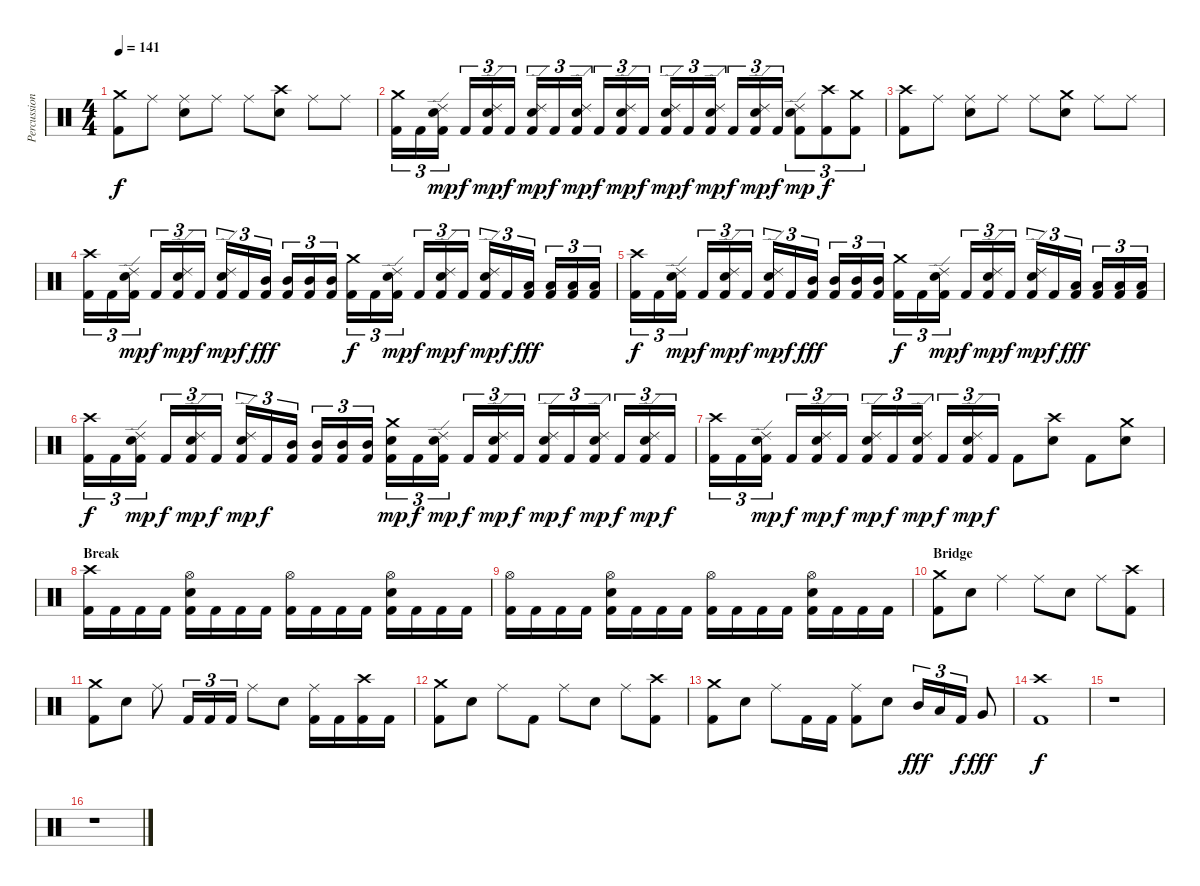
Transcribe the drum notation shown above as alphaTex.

\track ("Percussion" "Percussion") {instrument percussion}
\staff {score}
\articulation defaults
\ts (4 4)
\tempo 141
\clef neutral
\ks c
("Crash medium (hit)" "Kick (hit) 2").8{dy f} "Ride (middle)".8 ("Ride (middle)" "Snare (hit) 2").8 "Ride (middle)".8 "Ride (middle)".8 ("Crash high (hit)" "Snare (hit) 2").8 "Ride (middle)".8 "Ride (middle)".8 |
("Crash medium (hit)" "Kick (hit) 2").16{tu (3 2)} "Kick (hit) 2".16{tu (3 2)} ("Ride (edge) 2" "Snare (hit) 2" "Kick (hit) 2").16{tu (3 2) dy mp} "Kick (hit) 2".16{tu (3 2) dy f} ("Ride (edge) 2" "Snare (hit) 2" "Kick (hit) 2").16{tu (3 2) dy mp} "Kick (hit) 2".16{tu (3 2) dy f} ("Ride (edge) 2" "Snare (hit) 2" "Kick (hit) 2").16{tu (3 2) dy mp} "Kick (hit) 2".16{tu (3 2) dy f} ("Ride (edge) 2" "Snare (hit) 2" "Kick (hit) 2").16{tu (3 2) dy mp} "Kick (hit) 2".16{tu (3 2) dy f} ("Ride (edge) 2" "Snare (hit) 2" "Kick (hit) 2").16{tu (3 2) dy mp} "Kick (hit) 2".16{tu (3 2) dy f} ("Ride (edge) 2" "Snare (hit) 2" "Kick (hit) 2").16{tu (3 2) dy mp} "Kick (hit) 2".16{tu (3 2) dy f} ("Ride (edge) 2" "Snare (hit) 2" "Kick (hit) 2").16{tu (3 2) dy mp} "Kick (hit) 2".16{tu (3 2) dy f} ("Ride (edge) 2" "Snare (hit) 2" "Kick (hit) 2").16{tu (3 2) dy mp} "Kick (hit) 2".16{tu (3 2) dy f} ("Ride (edge) 2" "Snare (hit) 2" "Kick (hit) 2").8{tu (3 2) dy mp} ("Crash high (hit)" "Kick (hit) 2").8{tu (3 2) dy f} ("Crash medium (hit)" "Kick (hit) 2").8{tu (3 2)} |
("Crash high (hit)" "Kick (hit) 2").8 "Ride (middle)".8 ("Ride (middle)" "Snare (hit) 2").8 "Ride (middle)".8 "Ride (middle)".8 ("Crash medium (hit)" "Snare (hit) 2").8 "Ride (middle)".8 "Ride (middle)".8 |
("Crash high (hit)" "Kick (hit) 2").16{tu (3 2)} "Kick (hit) 2".16{tu (3 2)} ("Ride (edge) 2" "Snare (hit) 2" "Kick (hit) 2").16{tu (3 2) dy mp} "Kick (hit) 2".16{tu (3 2) dy f} ("Ride (edge) 2" "Snare (hit) 2" "Kick (hit) 2").16{tu (3 2) dy mp} "Kick (hit) 2".16{tu (3 2) dy f} ("Ride (edge) 2" "Snare (hit) 2" "Kick (hit) 2").16{tu (3 2) dy mp} "Kick (hit) 2".16{tu (3 2) dy f} ("Mid Tom (hit)" "Kick (hit) 2").16{tu (3 2) dy fff} ("Mid Tom (hit)" "Kick (hit) 2").16{tu (3 2)} ("Mid Tom (hit)" "Kick (hit) 2").16{tu (3 2)} ("Mid Tom (hit)" "Kick (hit) 2").16{tu (3 2)} ("Crash medium (hit)" "Kick (hit) 2").16{tu (3 2) dy f} "Kick (hit) 2".16{tu (3 2)} ("Ride (edge) 2" "Snare (hit) 2" "Kick (hit) 2").16{tu (3 2) dy mp} "Kick (hit) 2".16{tu (3 2) dy f} ("Ride (edge) 2" "Snare (hit) 2" "Kick (hit) 2").16{tu (3 2) dy mp} "Kick (hit) 2".16{tu (3 2) dy f} ("Ride (edge) 2" "Snare (hit) 2" "Kick (hit) 2").16{tu (3 2) dy mp} "Kick (hit) 2".16{tu (3 2) dy f} ("Low Tom (hit)" "Kick (hit) 2").16{tu (3 2) dy fff} ("Low Tom (hit)" "Kick (hit) 2").16{tu (3 2)} ("Low Tom (hit)" "Kick (hit) 2").16{tu (3 2)} ("Low Tom (hit)" "Kick (hit) 2").16{tu (3 2)} |
("Crash high (hit)" "Kick (hit) 2").16{tu (3 2) dy f} "Kick (hit) 2".16{tu (3 2)} ("Ride (edge) 2" "Snare (hit) 2" "Kick (hit) 2").16{tu (3 2) dy mp} "Kick (hit) 2".16{tu (3 2) dy f} ("Ride (edge) 2" "Snare (hit) 2" "Kick (hit) 2").16{tu (3 2) dy mp} "Kick (hit) 2".16{tu (3 2) dy f} ("Ride (edge) 2" "Snare (hit) 2" "Kick (hit) 2").16{tu (3 2) dy mp} "Kick (hit) 2".16{tu (3 2) dy f} ("Mid Tom (hit)" "Kick (hit) 2").16{tu (3 2) dy fff} ("Mid Tom (hit)" "Kick (hit) 2").16{tu (3 2)} ("Mid Tom (hit)" "Kick (hit) 2").16{tu (3 2)} ("Mid Tom (hit)" "Kick (hit) 2").16{tu (3 2)} ("Crash medium (hit)" "Kick (hit) 2").16{tu (3 2) dy f} "Kick (hit) 2".16{tu (3 2)} ("Ride (edge) 2" "Snare (hit) 2" "Kick (hit) 2").16{tu (3 2) dy mp} "Kick (hit) 2".16{tu (3 2) dy f} ("Ride (edge) 2" "Snare (hit) 2" "Kick (hit) 2").16{tu (3 2) dy mp} "Kick (hit) 2".16{tu (3 2) dy f} ("Ride (edge) 2" "Snare (hit) 2" "Kick (hit) 2").16{tu (3 2) dy mp} "Kick (hit) 2".16{tu (3 2) dy f} ("Low Tom (hit)" "Kick (hit) 2").16{tu (3 2) dy fff} ("Low Tom (hit)" "Kick (hit) 2").16{tu (3 2)} ("Low Tom (hit)" "Kick (hit) 2").16{tu (3 2)} ("Low Tom (hit)" "Kick (hit) 2").16{tu (3 2)} |
("Crash high (hit)" "Kick (hit) 2").16{tu (3 2) dy f} "Kick (hit) 2".16{tu (3 2)} ("Ride (edge) 2" "Snare (hit) 2" "Kick (hit) 2").16{tu (3 2) dy mp} "Kick (hit) 2".16{tu (3 2) dy f} ("Ride (edge) 2" "Snare (hit) 2" "Kick (hit) 2").16{tu (3 2) dy mp} "Kick (hit) 2".16{tu (3 2) dy f} ("Ride (edge) 2" "Snare (hit) 2" "Kick (hit) 2").16{tu (3 2) dy mp} "Kick (hit) 2".16{tu (3 2) dy f} ("Mid Tom (hit)" "Kick (hit) 2").16{tu (3 2)} ("Mid Tom (hit)" "Kick (hit) 2").16{tu (3 2)} ("Mid Tom (hit)" "Kick (hit) 2").16{tu (3 2)} ("Mid Tom (hit)" "Kick (hit) 2").16{tu (3 2)} ("Crash medium (hit)" "Snare (hit) 2" "Kick (hit) 2").16{tu (3 2) dy mp} "Kick (hit) 2".16{tu (3 2) dy f} ("Ride (edge) 2" "Snare (hit) 2" "Kick (hit) 2").16{tu (3 2) dy mp} "Kick (hit) 2".16{tu (3 2) dy f} ("Ride (edge) 2" "Snare (hit) 2" "Kick (hit) 2").16{tu (3 2) dy mp} "Kick (hit) 2".16{tu (3 2) dy f} ("Ride (edge) 2" "Snare (hit) 2" "Kick (hit) 2").16{tu (3 2) dy mp} "Kick (hit) 2".16{tu (3 2) dy f} ("Ride (edge) 2" "Snare (hit) 2" "Kick (hit) 2").16{tu (3 2) dy mp} "Kick (hit) 2".16{tu (3 2) dy f} ("Ride (edge) 2" "Snare (hit) 2" "Kick (hit) 2").16{tu (3 2) dy mp} "Kick (hit) 2".16{tu (3 2) dy f} |
("Crash high (hit)" "Kick (hit) 2").16{tu (3 2)} "Kick (hit) 2".16{tu (3 2)} ("Ride (edge) 2" "Snare (hit) 2" "Kick (hit) 2").16{tu (3 2) dy mp} "Kick (hit) 2".16{tu (3 2) dy f} ("Ride (edge) 2" "Snare (hit) 2" "Kick (hit) 2").16{tu (3 2) dy mp} "Kick (hit) 2".16{tu (3 2) dy f} ("Ride (edge) 2" "Snare (hit) 2" "Kick (hit) 2").16{tu (3 2) dy mp} "Kick (hit) 2".16{tu (3 2) dy f} ("Ride (edge) 2" "Snare (hit) 2" "Kick (hit) 2").16{tu (3 2) dy mp} "Kick (hit) 2".16{tu (3 2) dy f} ("Ride (edge) 2" "Snare (hit) 2" "Kick (hit) 2").16{tu (3 2) dy mp} "Kick (hit) 2".16{tu (3 2) dy f} "Kick (hit) 2".8 ("Crash high (hit)" "Snare (hit) 2").8 "Kick (hit) 2".8 ("Crash medium (hit)" "Snare (hit) 2").8 |
\section ("" "Break")
("Crash high (hit)" "Kick (hit) 2").16 "Kick (hit) 2".16 "Kick (hit) 2".16 "Kick (hit) 2".16 ("Hi-Hat (open)" "Snare (hit) 2" "Kick (hit) 2").16 "Kick (hit) 2".16 "Kick (hit) 2".16 "Kick (hit) 2".16 ("Hi-Hat (open)" "Kick (hit) 2").16 "Kick (hit) 2".16 "Kick (hit) 2".16 "Kick (hit) 2".16 ("Hi-Hat (open)" "Snare (hit) 2" "Kick (hit) 2").16 "Kick (hit) 2".16 "Kick (hit) 2".16 "Kick (hit) 2".16 |
("Hi-Hat (open)" "Kick (hit) 2").16 "Kick (hit) 2".16 "Kick (hit) 2".16 "Kick (hit) 2".16 ("Hi-Hat (open)" "Snare (hit) 2" "Kick (hit) 2").16 "Kick (hit) 2".16 "Kick (hit) 2".16 "Kick (hit) 2".16 ("Hi-Hat (open)" "Kick (hit) 2").16 "Kick (hit) 2".16 "Kick (hit) 2".16 "Kick (hit) 2".16 ("Hi-Hat (open)" "Snare (hit) 2" "Kick (hit) 2").16 "Kick (hit) 2".16 "Kick (hit) 2".16 "Kick (hit) 2".16 |
\section ("" "Bridge")
("Crash medium (hit)" "Kick (hit) 2").8 "Snare (hit) 2".8 "Ride (middle)".4 "Ride (middle)".8 "Snare (hit) 2".8 "Ride (middle)".8 ("Crash high (hit)" "Kick (hit) 2").8 |
("Crash medium (hit)" "Kick (hit) 2").8 "Snare (hit) 2".8 "Ride (middle)".8 "Kick (hit) 2".16{tu (3 2)} "Kick (hit) 2".16{tu (3 2)} "Kick (hit) 2".16{tu (3 2)} "Ride (middle)".8 "Snare (hit) 2".8 ("Ride (middle)" "Kick (hit) 2").16 "Kick (hit) 2".16 ("Crash high (hit)" "Kick (hit) 2").16 "Kick (hit) 2".16 |
("Crash medium (hit)" "Kick (hit) 2").8 "Snare (hit) 2".8 "Ride (middle)".8 "Kick (hit) 2".8 "Ride (middle)".8 "Snare (hit) 2".8 "Ride (middle)".8 ("Crash high (hit)" "Kick (hit) 2").8 |
("Crash medium (hit)" "Kick (hit) 2").8 "Snare (hit) 2".8 "Ride (middle)".8 "Kick (hit) 2".16 "Kick (hit) 2".16 ("Ride (middle)" "Kick (hit) 2").8 "Snare (hit) 2".8 "Mid Tom (hit)".16{tu (3 2) dy fff} "Low Tom (hit)".16{tu (3 2)} "Kick (hit) 2".16{tu (3 2) dy f} "Very Low Tom (hit)".8{dy fff} |
("Crash high (hit)" "Kick (hit) 2").1{dy f} |
r.1 |
r.1
